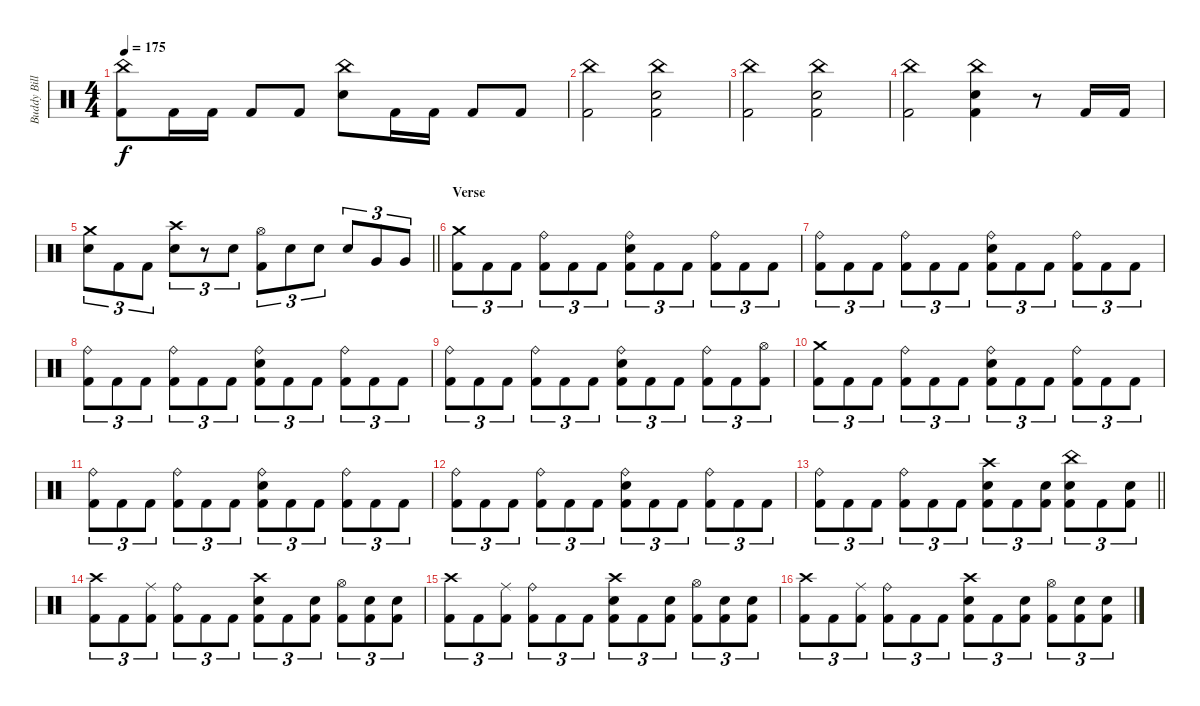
\track ("Buddy Bill" "Buddy Bill") {instrument percussion}
\staff {score}
\articulation defaults
\ts (4 4)
\tempo 175
\clef neutral
\ks c
("China (hit)" "Kick (hit) 2").8{dy f} "Kick (hit) 2".16 "Kick (hit) 2".16 "Kick (hit) 2".8 "Kick (hit) 2".8 ("China (hit)" "Snare (hit) 2").8 "Kick (hit) 2".16 "Kick (hit) 2".16 "Kick (hit) 2".8 "Kick (hit) 2".8 |
("China (hit)" "Kick (hit) 2").2 ("China (hit)" "Snare (hit) 2" "Kick (hit) 2").2 |
("China (hit)" "Kick (hit) 2").2 ("China (hit)" "Snare (hit) 2" "Kick (hit) 2").2 |
("China (hit)" "Kick (hit) 2").2 ("China (hit)" "Snare (hit) 2" "Kick (hit) 2").4 r.8 "Kick (hit) 2".16 "Kick (hit) 2".16 |
\barLineRight lightlight
("Crash medium (hit)" "Snare (hit) 2").8{tu (3 2)} "Kick (hit) 2".8{tu (3 2)} "Kick (hit) 2".8{tu (3 2)} ("Crash high (hit)" "Snare (hit) 2").8{tu (3 2)} r.8{tu (3 2)} "Snare (hit) 2".8{tu (3 2)} ("Hi-Hat (open)" "Kick (hit) 2").8{tu (3 2)} "Snare (hit) 2".8{tu (3 2)} "Snare (hit) 2".8{tu (3 2)} "Snare (hit) 2".8{tu (3 2)} "Very Low Tom (hit)".8{tu (3 2)} "Very Low Tom (hit)".8{tu (3 2)} |
\section ("" "Verse")
("Crash medium (hit)" "Kick (hit) 2").8{tu (3 2)} "Kick (hit) 2".8{tu (3 2)} "Kick (hit) 2".8{tu (3 2)} ("Ride (bell)" "Kick (hit) 2").8{tu (3 2)} "Kick (hit) 2".8{tu (3 2)} "Kick (hit) 2".8{tu (3 2)} ("Ride (bell)" "Snare (hit) 2" "Kick (hit) 2").8{tu (3 2)} "Kick (hit) 2".8{tu (3 2)} "Kick (hit) 2".8{tu (3 2)} ("Ride (bell)" "Kick (hit) 2").8{tu (3 2)} "Kick (hit) 2".8{tu (3 2)} "Kick (hit) 2".8{tu (3 2)} |
("Ride (bell)" "Kick (hit) 2").8{tu (3 2)} "Kick (hit) 2".8{tu (3 2)} "Kick (hit) 2".8{tu (3 2)} ("Ride (bell)" "Kick (hit) 2").8{tu (3 2)} "Kick (hit) 2".8{tu (3 2)} "Kick (hit) 2".8{tu (3 2)} ("Ride (bell)" "Snare (hit) 2" "Kick (hit) 2").8{tu (3 2)} "Kick (hit) 2".8{tu (3 2)} "Kick (hit) 2".8{tu (3 2)} ("Ride (bell)" "Kick (hit) 2").8{tu (3 2)} "Kick (hit) 2".8{tu (3 2)} "Kick (hit) 2".8{tu (3 2)} |
("Ride (bell)" "Kick (hit) 2").8{tu (3 2)} "Kick (hit) 2".8{tu (3 2)} "Kick (hit) 2".8{tu (3 2)} ("Ride (bell)" "Kick (hit) 2").8{tu (3 2)} "Kick (hit) 2".8{tu (3 2)} "Kick (hit) 2".8{tu (3 2)} ("Ride (bell)" "Snare (hit) 2" "Kick (hit) 2").8{tu (3 2)} "Kick (hit) 2".8{tu (3 2)} "Kick (hit) 2".8{tu (3 2)} ("Ride (bell)" "Kick (hit) 2").8{tu (3 2)} "Kick (hit) 2".8{tu (3 2)} "Kick (hit) 2".8{tu (3 2)} |
("Ride (bell)" "Kick (hit) 2").8{tu (3 2)} "Kick (hit) 2".8{tu (3 2)} "Kick (hit) 2".8{tu (3 2)} ("Ride (bell)" "Kick (hit) 2").8{tu (3 2)} "Kick (hit) 2".8{tu (3 2)} "Kick (hit) 2".8{tu (3 2)} ("Ride (bell)" "Snare (hit) 2" "Kick (hit) 2").8{tu (3 2)} "Kick (hit) 2".8{tu (3 2)} "Kick (hit) 2".8{tu (3 2)} ("Ride (bell)" "Kick (hit) 2").8{tu (3 2)} "Kick (hit) 2".8{tu (3 2)} ("Hi-Hat (open)" "Kick (hit) 2").8{tu (3 2)} |
("Crash medium (hit)" "Kick (hit) 2").8{tu (3 2)} "Kick (hit) 2".8{tu (3 2)} "Kick (hit) 2".8{tu (3 2)} ("Ride (bell)" "Kick (hit) 2").8{tu (3 2)} "Kick (hit) 2".8{tu (3 2)} "Kick (hit) 2".8{tu (3 2)} ("Ride (bell)" "Snare (hit) 2" "Kick (hit) 2").8{tu (3 2)} "Kick (hit) 2".8{tu (3 2)} "Kick (hit) 2".8{tu (3 2)} ("Ride (bell)" "Kick (hit) 2").8{tu (3 2)} "Kick (hit) 2".8{tu (3 2)} "Kick (hit) 2".8{tu (3 2)} |
("Ride (bell)" "Kick (hit) 2").8{tu (3 2)} "Kick (hit) 2".8{tu (3 2)} "Kick (hit) 2".8{tu (3 2)} ("Ride (bell)" "Kick (hit) 2").8{tu (3 2)} "Kick (hit) 2".8{tu (3 2)} "Kick (hit) 2".8{tu (3 2)} ("Ride (bell)" "Snare (hit) 2" "Kick (hit) 2").8{tu (3 2)} "Kick (hit) 2".8{tu (3 2)} "Kick (hit) 2".8{tu (3 2)} ("Ride (bell)" "Kick (hit) 2").8{tu (3 2)} "Kick (hit) 2".8{tu (3 2)} "Kick (hit) 2".8{tu (3 2)} |
("Ride (bell)" "Kick (hit) 2").8{tu (3 2)} "Kick (hit) 2".8{tu (3 2)} "Kick (hit) 2".8{tu (3 2)} ("Ride (bell)" "Kick (hit) 2").8{tu (3 2)} "Kick (hit) 2".8{tu (3 2)} "Kick (hit) 2".8{tu (3 2)} ("Ride (bell)" "Snare (hit) 2" "Kick (hit) 2").8{tu (3 2)} "Kick (hit) 2".8{tu (3 2)} "Kick (hit) 2".8{tu (3 2)} ("Ride (bell)" "Kick (hit) 2").8{tu (3 2)} "Kick (hit) 2".8{tu (3 2)} "Kick (hit) 2".8{tu (3 2)} |
\barLineRight lightlight
("Ride (bell)" "Kick (hit) 2").8{tu (3 2)} "Kick (hit) 2".8{tu (3 2)} "Kick (hit) 2".8{tu (3 2)} ("Ride (bell)" "Kick (hit) 2").8{tu (3 2)} "Kick (hit) 2".8{tu (3 2)} "Kick (hit) 2".8{tu (3 2)} ("Crash high (hit)" "Snare (hit) 2" "Kick (hit) 2").8{tu (3 2)} "Kick (hit) 2".8{tu (3 2)} ("Snare (hit) 2" "Kick (hit) 2").8{tu (3 2)} ("China (hit)" "Snare (hit) 2" "Kick (hit) 2").8{tu (3 2)} "Kick (hit) 2".8{tu (3 2)} ("Snare (hit) 2" "Kick (hit) 2").8{tu (3 2)} |
\section ("" "")
("Crash high (hit)" "Kick (hit) 2").8{tu (3 2)} "Kick (hit) 2".8{tu (3 2)} ("Ride (middle)" "Kick (hit) 2").8{tu (3 2)} ("Ride (bell)" "Kick (hit) 2").8{tu (3 2)} "Kick (hit) 2".8{tu (3 2)} "Kick (hit) 2".8{tu (3 2)} ("Crash high (hit)" "Snare (hit) 2" "Kick (hit) 2").8{tu (3 2)} "Kick (hit) 2".8{tu (3 2)} ("Snare (hit) 2" "Kick (hit) 2").8{tu (3 2)} ("Hi-Hat (open)" "Kick (hit) 2").8{tu (3 2)} ("Snare (hit) 2" "Kick (hit) 2").8{tu (3 2)} ("Snare (hit) 2" "Kick (hit) 2").8{tu (3 2)} |
("Crash high (hit)" "Kick (hit) 2").8{tu (3 2)} "Kick (hit) 2".8{tu (3 2)} ("Ride (middle)" "Kick (hit) 2").8{tu (3 2)} ("Ride (bell)" "Kick (hit) 2").8{tu (3 2)} "Kick (hit) 2".8{tu (3 2)} "Kick (hit) 2".8{tu (3 2)} ("Crash high (hit)" "Snare (hit) 2" "Kick (hit) 2").8{tu (3 2)} "Kick (hit) 2".8{tu (3 2)} ("Snare (hit) 2" "Kick (hit) 2").8{tu (3 2)} ("Hi-Hat (open)" "Kick (hit) 2").8{tu (3 2)} ("Snare (hit) 2" "Kick (hit) 2").8{tu (3 2)} ("Snare (hit) 2" "Kick (hit) 2").8{tu (3 2)} |
("Crash high (hit)" "Kick (hit) 2").8{tu (3 2)} "Kick (hit) 2".8{tu (3 2)} ("Ride (middle)" "Kick (hit) 2").8{tu (3 2)} ("Ride (bell)" "Kick (hit) 2").8{tu (3 2)} "Kick (hit) 2".8{tu (3 2)} "Kick (hit) 2".8{tu (3 2)} ("Crash high (hit)" "Snare (hit) 2" "Kick (hit) 2").8{tu (3 2)} "Kick (hit) 2".8{tu (3 2)} ("Snare (hit) 2" "Kick (hit) 2").8{tu (3 2)} ("Hi-Hat (open)" "Kick (hit) 2").8{tu (3 2)} ("Snare (hit) 2" "Kick (hit) 2").8{tu (3 2)} ("Snare (hit) 2" "Kick (hit) 2").8{tu (3 2)}
